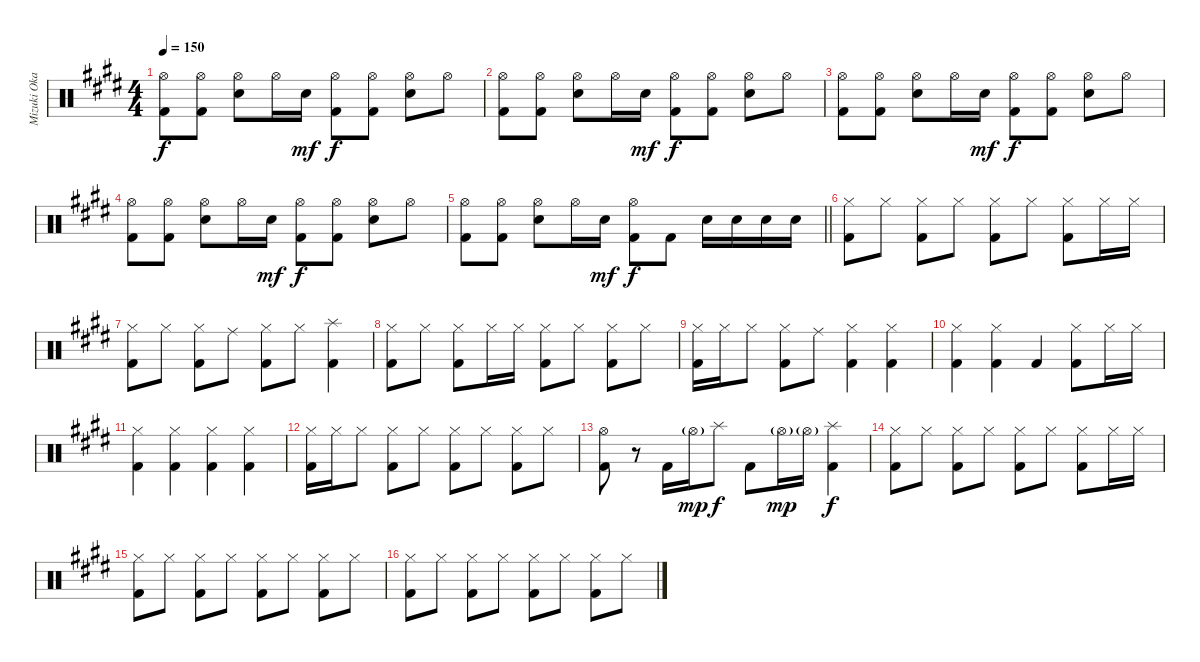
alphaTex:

\track ("Mizuki Okajima (Drums)" "Mizuki Oka") {instrument percussion}
\staff {score}
\articulation defaults
\ts (4 4)
\tempo 150
\clef neutral
\ks c#minor
("Hi-Hat (open)" "Kick (hit) 2").8{dy f} ("Hi-Hat (open)" "Kick (hit) 2").8 ("Hi-Hat (open)" "Snare (hit) 2").8 "Hi-Hat (open)".16 "Snare (hit) 2".16{dy mf} ("Hi-Hat (open)" "Kick (hit) 2").8{dy f} ("Hi-Hat (open)" "Kick (hit) 2").8 ("Hi-Hat (open)" "Snare (hit) 2").8 "Hi-Hat (open)".8 |
("Hi-Hat (open)" "Kick (hit) 2").8 ("Hi-Hat (open)" "Kick (hit) 2").8 ("Hi-Hat (open)" "Snare (hit) 2").8 "Hi-Hat (open)".16 "Snare (hit) 2".16{dy mf} ("Hi-Hat (open)" "Kick (hit) 2").8{dy f} ("Hi-Hat (open)" "Kick (hit) 2").8 ("Hi-Hat (open)" "Snare (hit) 2").8 "Hi-Hat (open)".8 |
("Hi-Hat (open)" "Kick (hit) 2").8 ("Hi-Hat (open)" "Kick (hit) 2").8 ("Hi-Hat (open)" "Snare (hit) 2").8 "Hi-Hat (open)".16 "Snare (hit) 2".16{dy mf} ("Hi-Hat (open)" "Kick (hit) 2").8{dy f} ("Hi-Hat (open)" "Kick (hit) 2").8 ("Hi-Hat (open)" "Snare (hit) 2").8 "Hi-Hat (open)".8 |
("Hi-Hat (open)" "Kick (hit) 2").8 ("Hi-Hat (open)" "Kick (hit) 2").8 ("Hi-Hat (open)" "Snare (hit) 2").8 "Hi-Hat (open)".16 "Snare (hit) 2".16{dy mf} ("Hi-Hat (open)" "Kick (hit) 2").8{dy f} ("Hi-Hat (open)" "Kick (hit) 2").8 ("Hi-Hat (open)" "Snare (hit) 2").8 "Hi-Hat (open)".8 |
\barLineRight lightlight
("Hi-Hat (open)" "Kick (hit) 2").8 ("Hi-Hat (open)" "Kick (hit) 2").8 ("Hi-Hat (open)" "Snare (hit) 2").8 "Hi-Hat (open)".16 "Snare (hit) 2".16{dy mf} ("Hi-Hat (open)" "Kick (hit) 2").8{dy f} "Kick (hit) 2".8 "Snare (hit) 2".16 "Snare (hit) 2".16 "Snare (hit) 2".16 "Snare (hit) 2".16 |
("Hi-Hat (closed)" "Kick (hit) 2").8 "Hi-Hat (closed)".8 ("Hi-Hat (closed)" "Kick (hit) 2").8 "Hi-Hat (closed)".8 ("Hi-Hat (closed)" "Kick (hit) 2").8 "Hi-Hat (closed)".8 ("Hi-Hat (closed)" "Kick (hit) 2").8 "Hi-Hat (closed)".16 "Hi-Hat (closed)".16 |
("Hi-Hat (closed)" "Kick (hit) 2").8 "Hi-Hat (closed)".8 ("Hi-Hat (closed)" "Kick (hit) 2").8 "Ride (middle)".8 ("Hi-Hat (closed)" "Kick (hit) 2").8 "Hi-Hat (closed)".8 ("Splash (hit)" "Kick (hit) 2").4 |
("Hi-Hat (closed)" "Kick (hit) 2").8 "Hi-Hat (closed)".8 ("Hi-Hat (closed)" "Kick (hit) 2").8 "Hi-Hat (closed)".16 "Hi-Hat (closed)".16 ("Hi-Hat (closed)" "Kick (hit) 2").8 "Hi-Hat (closed)".8 ("Hi-Hat (closed)" "Kick (hit) 2").8 "Hi-Hat (closed)".8 |
("Hi-Hat (closed)" "Kick (hit) 2").16 "Hi-Hat (closed)".16 "Hi-Hat (closed)".8 ("Hi-Hat (closed)" "Kick (hit) 2").8 "Ride (middle)".8 ("Hi-Hat (closed)" "Kick (hit) 2").4 ("Hi-Hat (closed)" "Kick (hit) 2").4 |
("Hi-Hat (closed)" "Kick (hit) 2").4 ("Hi-Hat (closed)" "Kick (hit) 2").4 "Kick (hit) 2".4 ("Hi-Hat (closed)" "Kick (hit) 2").8 "Hi-Hat (closed)".16 "Hi-Hat (closed)".16 |
("Hi-Hat (closed)" "Kick (hit) 2").4 ("Hi-Hat (closed)" "Kick (hit) 2").4 ("Hi-Hat (closed)" "Kick (hit) 2").4 ("Hi-Hat (closed)" "Kick (hit) 2").4 |
("Hi-Hat (closed)" "Kick (hit) 2").16 "Hi-Hat (closed)".16 "Hi-Hat (closed)".8 ("Hi-Hat (closed)" "Kick (hit) 2").8 "Hi-Hat (closed)".8 ("Hi-Hat (closed)" "Kick (hit) 2").8 "Hi-Hat (closed)".8 ("Hi-Hat (closed)" "Kick (hit) 2").8 "Hi-Hat (closed)".8 |
("Hi-Hat (open)" "Kick (hit) 2").8 r.8 "Kick (hit) 2".16 "Hi-Hat (open)"{g}.16{dy mp} "Splash (hit)".8{dy f} "Kick (hit) 2".8 "Hi-Hat (open)"{g}.16{dy mp} "Hi-Hat (open)"{g}.16 ("Splash (hit)" "Kick (hit) 2").4{dy f} |
("Hi-Hat (closed)" "Kick (hit) 2").8 "Hi-Hat (closed)".8 ("Hi-Hat (closed)" "Kick (hit) 2").8 "Hi-Hat (closed)".8 ("Hi-Hat (closed)" "Kick (hit) 2").8 "Hi-Hat (closed)".8 ("Hi-Hat (closed)" "Kick (hit) 2").8 "Hi-Hat (closed)".16 "Hi-Hat (closed)".16 |
("Hi-Hat (closed)" "Kick (hit) 2").8 "Hi-Hat (closed)".8 ("Hi-Hat (closed)" "Kick (hit) 2").8 "Hi-Hat (closed)".8 ("Hi-Hat (closed)" "Kick (hit) 2").8 "Hi-Hat (closed)".8 ("Hi-Hat (closed)" "Kick (hit) 2").8 "Hi-Hat (closed)".8 |
("Hi-Hat (closed)" "Kick (hit) 2").8 "Hi-Hat (closed)".8 ("Hi-Hat (closed)" "Kick (hit) 2").8 "Hi-Hat (closed)".8 ("Hi-Hat (closed)" "Kick (hit) 2").8 "Hi-Hat (closed)".8 ("Hi-Hat (closed)" "Kick (hit) 2").8 "Hi-Hat (closed)".8
